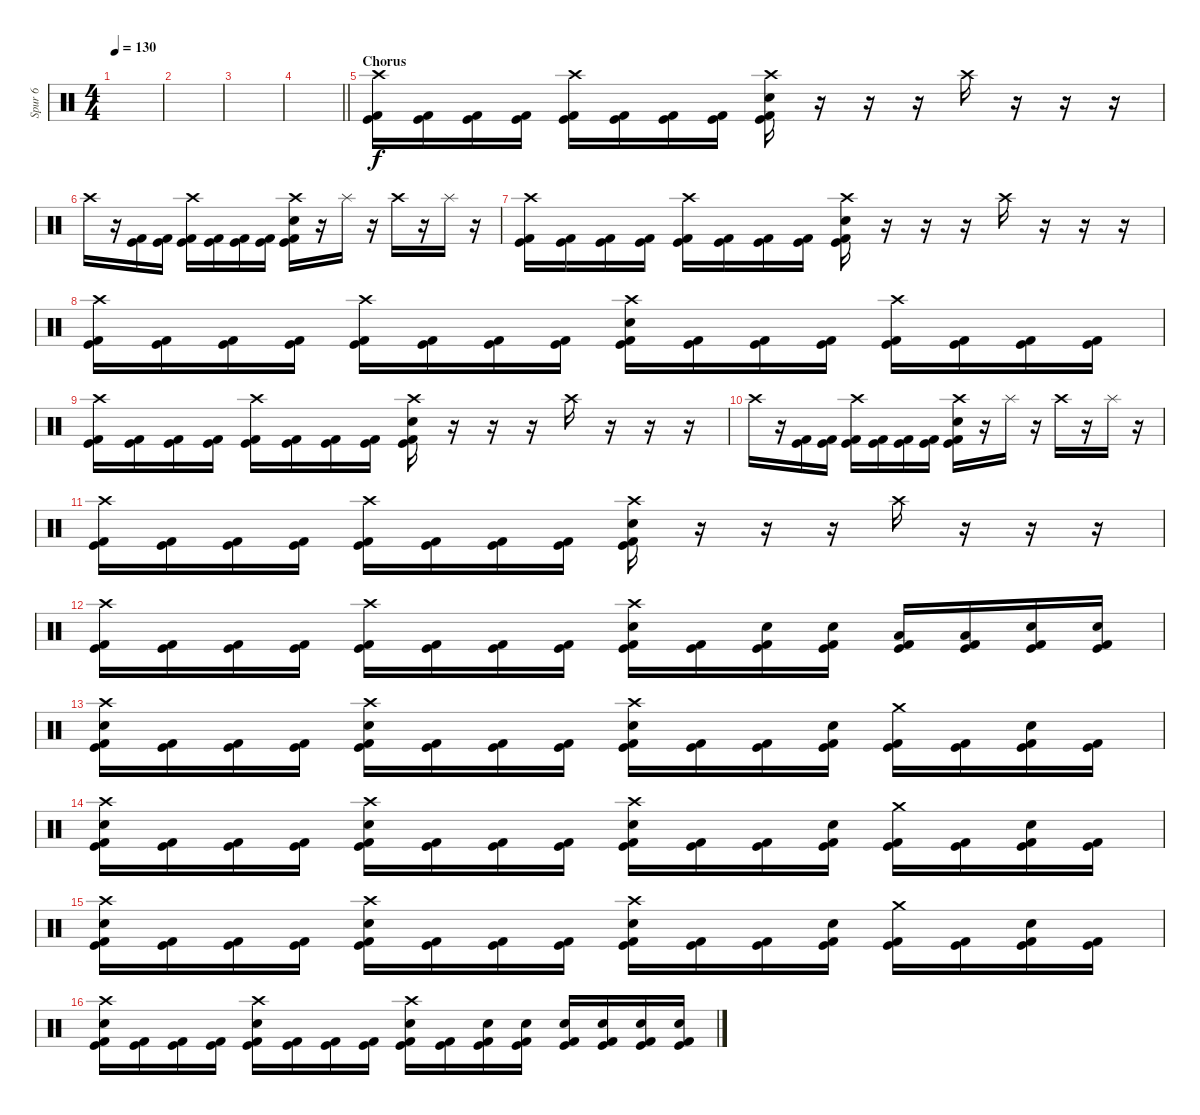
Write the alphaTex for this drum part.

\track ("Spur 6" "Spur 6") {instrument percussion}
\staff {score}
\articulation defaults
\ts (4 4)
\tempo 130
\clef neutral
\ks c
|
|
|
\barLineRight lightlight
|
\section ("" "Chorus")
("Crash high (hit)" "Kick (hit)" "Kick (hit) 2").16 ("Kick (hit)" "Kick (hit) 2").16 ("Kick (hit)" "Kick (hit) 2").16 ("Kick (hit)" "Kick (hit) 2").16 ("Crash high (hit)" "Kick (hit)" "Kick (hit) 2").16 ("Kick (hit)" "Kick (hit) 2").16 ("Kick (hit)" "Kick (hit) 2").16 ("Kick (hit)" "Kick (hit) 2").16 ("Crash high (hit)" "Electric Snare (hit)" "Kick (hit)" "Kick (hit) 2").16 r.16 r.16 r.16 "Crash high (hit)".16 r.16 r.16 r.16 |
"Crash high (hit)".16 r.16 ("Kick (hit)" "Kick (hit) 2").16 ("Kick (hit)" "Kick (hit) 2").16 ("Crash high (hit)" "Kick (hit)" "Kick (hit) 2").16 ("Kick (hit)" "Kick (hit) 2").16 ("Kick (hit)" "Kick (hit) 2").16 ("Kick (hit)" "Kick (hit) 2").16 ("Crash high (hit)" "Electric Snare (hit)" "Kick (hit)" "Kick (hit) 2").16 r.16 "Splash (hit)".16 r.16 "Crash high (hit)".16 r.16 "Splash (hit)".16 r.16 |
("Crash high (hit)" "Kick (hit)" "Kick (hit) 2").16 ("Kick (hit)" "Kick (hit) 2").16 ("Kick (hit)" "Kick (hit) 2").16 ("Kick (hit)" "Kick (hit) 2").16 ("Crash high (hit)" "Kick (hit)" "Kick (hit) 2").16 ("Kick (hit)" "Kick (hit) 2").16 ("Kick (hit)" "Kick (hit) 2").16 ("Kick (hit)" "Kick (hit) 2").16 ("Crash high (hit)" "Electric Snare (hit)" "Kick (hit)" "Kick (hit) 2").16 r.16 r.16 r.16 "Crash high (hit)".16 r.16 r.16 r.16 |
("Crash high (hit)" "Kick (hit)" "Kick (hit) 2").16 ("Kick (hit)" "Kick (hit) 2").16 ("Kick (hit)" "Kick (hit) 2").16 ("Kick (hit)" "Kick (hit) 2").16 ("Crash high (hit)" "Kick (hit)" "Kick (hit) 2").16 ("Kick (hit)" "Kick (hit) 2").16 ("Kick (hit)" "Kick (hit) 2").16 ("Kick (hit)" "Kick (hit) 2").16 ("Crash high (hit)" "Electric Snare (hit)" "Kick (hit)" "Kick (hit) 2").16 ("Kick (hit)" "Kick (hit) 2").16 ("Kick (hit)" "Kick (hit) 2").16 ("Kick (hit)" "Kick (hit) 2").16 ("Crash high (hit)" "Kick (hit)" "Kick (hit) 2").16 ("Kick (hit)" "Kick (hit) 2").16 ("Kick (hit)" "Kick (hit) 2").16 ("Kick (hit)" "Kick (hit) 2").16 |
("Crash high (hit)" "Kick (hit)" "Kick (hit) 2").16 ("Kick (hit)" "Kick (hit) 2").16 ("Kick (hit)" "Kick (hit) 2").16 ("Kick (hit)" "Kick (hit) 2").16 ("Crash high (hit)" "Kick (hit)" "Kick (hit) 2").16 ("Kick (hit)" "Kick (hit) 2").16 ("Kick (hit)" "Kick (hit) 2").16 ("Kick (hit)" "Kick (hit) 2").16 ("Crash high (hit)" "Electric Snare (hit)" "Kick (hit)" "Kick (hit) 2").16 r.16 r.16 r.16 "Crash high (hit)".16 r.16 r.16 r.16 |
"Crash high (hit)".16 r.16 ("Kick (hit)" "Kick (hit) 2").16 ("Kick (hit)" "Kick (hit) 2").16 ("Crash high (hit)" "Kick (hit)" "Kick (hit) 2").16 ("Kick (hit)" "Kick (hit) 2").16 ("Kick (hit)" "Kick (hit) 2").16 ("Kick (hit)" "Kick (hit) 2").16 ("Crash high (hit)" "Electric Snare (hit)" "Kick (hit)" "Kick (hit) 2").16 r.16 "Splash (hit)".16 r.16 "Crash high (hit)".16 r.16 "Splash (hit)".16 r.16 |
("Crash high (hit)" "Kick (hit)" "Kick (hit) 2").16 ("Kick (hit)" "Kick (hit) 2").16 ("Kick (hit)" "Kick (hit) 2").16 ("Kick (hit)" "Kick (hit) 2").16 ("Crash high (hit)" "Kick (hit)" "Kick (hit) 2").16 ("Kick (hit)" "Kick (hit) 2").16 ("Kick (hit)" "Kick (hit) 2").16 ("Kick (hit)" "Kick (hit) 2").16 ("Crash high (hit)" "Electric Snare (hit)" "Kick (hit)" "Kick (hit) 2").16 r.16 r.16 r.16 "Crash high (hit)".16 r.16 r.16 r.16 |
("Crash high (hit)" "Kick (hit)" "Kick (hit) 2").16 ("Kick (hit)" "Kick (hit) 2").16 ("Kick (hit)" "Kick (hit) 2").16 ("Kick (hit)" "Kick (hit) 2").16 ("Crash high (hit)" "Kick (hit)" "Kick (hit) 2").16 ("Kick (hit)" "Kick (hit) 2").16 ("Kick (hit)" "Kick (hit) 2").16 ("Kick (hit)" "Kick (hit) 2").16 ("Crash high (hit)" "Electric Snare (hit)" "Kick (hit)" "Kick (hit) 2").16 ("Kick (hit)" "Kick (hit) 2").16 ("Electric Snare (hit)" "Kick (hit)" "Kick (hit) 2").16 ("Electric Snare (hit)" "Kick (hit)" "Kick (hit) 2").16 ("Low Tom (hit)" "Kick (hit)" "Kick (hit) 2").16 ("Low Tom (hit)" "Kick (hit)" "Kick (hit) 2").16 ("Electric Snare (hit)" "Kick (hit)" "Kick (hit) 2").16 ("Electric Snare (hit)" "Kick (hit)" "Kick (hit) 2").16 |
("Crash high (hit)" "Electric Snare (hit)" "Kick (hit)" "Kick (hit) 2").16 ("Kick (hit)" "Kick (hit) 2").16 ("Kick (hit)" "Kick (hit) 2").16 ("Kick (hit)" "Kick (hit) 2").16 ("Crash high (hit)" "Electric Snare (hit)" "Kick (hit)" "Kick (hit) 2").16 ("Kick (hit)" "Kick (hit) 2").16 ("Kick (hit)" "Kick (hit) 2").16 ("Kick (hit)" "Kick (hit) 2").16 ("Crash high (hit)" "Electric Snare (hit)" "Kick (hit)" "Kick (hit) 2").16 ("Kick (hit)" "Kick (hit) 2").16 ("Kick (hit)" "Kick (hit) 2").16 ("Electric Snare (hit)" "Kick (hit)" "Kick (hit) 2").16 ("Crash medium (hit)" "Kick (hit)" "Kick (hit) 2").16 ("Kick (hit)" "Kick (hit) 2").16 ("Electric Snare (hit)" "Kick (hit)" "Kick (hit) 2").16 ("Kick (hit)" "Kick (hit) 2").16 |
("Crash high (hit)" "Electric Snare (hit)" "Kick (hit)" "Kick (hit) 2").16 ("Kick (hit)" "Kick (hit) 2").16 ("Kick (hit)" "Kick (hit) 2").16 ("Kick (hit)" "Kick (hit) 2").16 ("Crash high (hit)" "Electric Snare (hit)" "Kick (hit)" "Kick (hit) 2").16 ("Kick (hit)" "Kick (hit) 2").16 ("Kick (hit)" "Kick (hit) 2").16 ("Kick (hit)" "Kick (hit) 2").16 ("Crash high (hit)" "Electric Snare (hit)" "Kick (hit)" "Kick (hit) 2").16 ("Kick (hit)" "Kick (hit) 2").16 ("Kick (hit)" "Kick (hit) 2").16 ("Electric Snare (hit)" "Kick (hit)" "Kick (hit) 2").16 ("Crash medium (hit)" "Kick (hit)" "Kick (hit) 2").16 ("Kick (hit)" "Kick (hit) 2").16 ("Electric Snare (hit)" "Kick (hit)" "Kick (hit) 2").16 ("Kick (hit)" "Kick (hit) 2").16 |
("Crash high (hit)" "Electric Snare (hit)" "Kick (hit)" "Kick (hit) 2").16 ("Kick (hit)" "Kick (hit) 2").16 ("Kick (hit)" "Kick (hit) 2").16 ("Kick (hit)" "Kick (hit) 2").16 ("Crash high (hit)" "Electric Snare (hit)" "Kick (hit)" "Kick (hit) 2").16 ("Kick (hit)" "Kick (hit) 2").16 ("Kick (hit)" "Kick (hit) 2").16 ("Kick (hit)" "Kick (hit) 2").16 ("Crash high (hit)" "Electric Snare (hit)" "Kick (hit)" "Kick (hit) 2").16 ("Kick (hit)" "Kick (hit) 2").16 ("Kick (hit)" "Kick (hit) 2").16 ("Electric Snare (hit)" "Kick (hit)" "Kick (hit) 2").16 ("Crash medium (hit)" "Kick (hit)" "Kick (hit) 2").16 ("Kick (hit)" "Kick (hit) 2").16 ("Electric Snare (hit)" "Kick (hit)" "Kick (hit) 2").16 ("Kick (hit)" "Kick (hit) 2").16 |
("Crash high (hit)" "Electric Snare (hit)" "Kick (hit)" "Kick (hit) 2").16 ("Kick (hit)" "Kick (hit) 2").16 ("Kick (hit)" "Kick (hit) 2").16 ("Kick (hit)" "Kick (hit) 2").16 ("Crash high (hit)" "Electric Snare (hit)" "Kick (hit)" "Kick (hit) 2").16 ("Kick (hit)" "Kick (hit) 2").16 ("Kick (hit)" "Kick (hit) 2").16 ("Kick (hit)" "Kick (hit) 2").16 ("Crash high (hit)" "Electric Snare (hit)" "Kick (hit)" "Kick (hit) 2").16 ("Kick (hit)" "Kick (hit) 2").16 ("Electric Snare (hit)" "Kick (hit)" "Kick (hit) 2").16 ("Electric Snare (hit)" "Kick (hit)" "Kick (hit) 2").16 ("Electric Snare (hit)" "Kick (hit)" "Kick (hit) 2").16 ("Electric Snare (hit)" "Kick (hit)" "Kick (hit) 2").16 ("Electric Snare (hit)" "Kick (hit)" "Kick (hit) 2").16 ("Electric Snare (hit)" "Kick (hit)" "Kick (hit) 2").16
